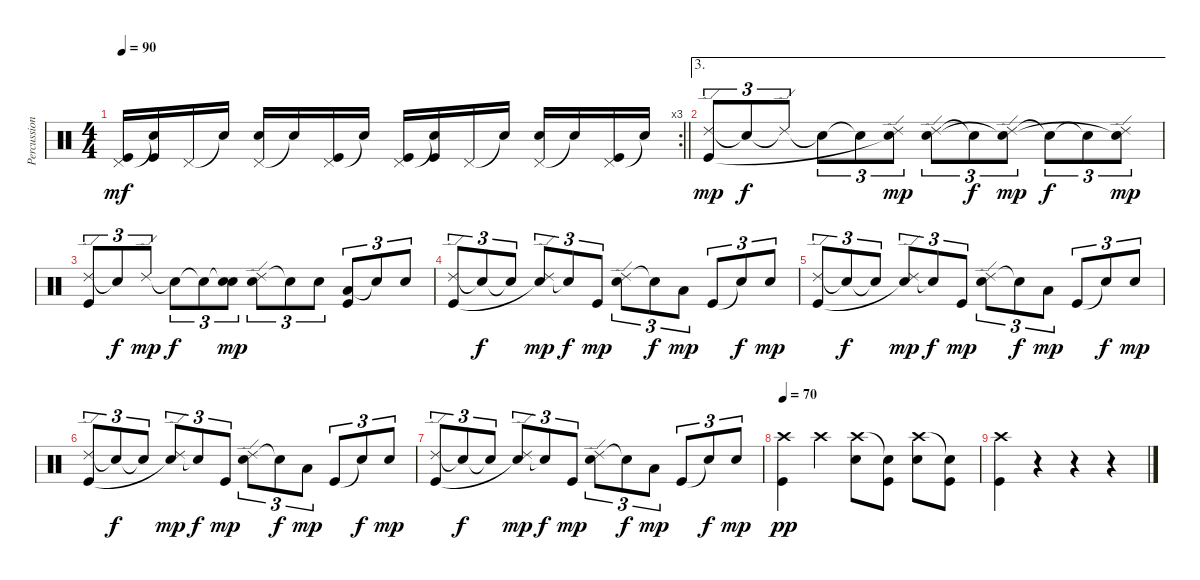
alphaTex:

\track ("Percussion" "Percussion") {instrument percussion}
\staff {score}
\articulation defaults
\rc 3
\ts (4 4)
\tempo 90
\clef neutral
\barLineRight lightlight
\ks c
("Pedal Hi-Hat (hit)" "Kick (hit)").16{dy mf} ("Snare (hit)"{t} "Kick (hit)").16 "Pedal Hi-Hat (hit)".16 "Snare (hit)"{t}.16 ("Pedal Hi-Hat (hit)" "Electric Snare (hit)").16 "Snare (hit)"{t}.16 ("Pedal Hi-Hat (hit)" "Kick (hit)").16 "Snare (hit)"{t}.16 ("Pedal Hi-Hat (hit)" "Kick (hit)").16 ("Snare (hit)"{t} "Kick (hit)").16 "Pedal Hi-Hat (hit)".16 "Snare (hit)"{t}.16 ("Pedal Hi-Hat (hit)" "Electric Snare (hit)").16 "Snare (hit)"{t}.16 ("Pedal Hi-Hat (hit)" "Kick (hit)").16 "Snare (hit)"{t}.16 |
\ae 3
("Ride (edge) 2" "Kick (hit)").8{tu (3 2) dy mp} "Snare (hit)"{t}.8{tu (3 2) dy f} "Ride (edge) 2"{t}.8{tu (3 2)} "Snare (hit)"{t}.8{tu (3 2)} "Snare (hit)"{t}.8{tu (3 2)} ("Ride (edge) 2" "Snare (hit)"{t}).8{tu (3 2) dy mp} ("Ride (edge) 2" "Electric Snare (hit)").8{tu (3 2)} "Snare (hit)"{t}.8{tu (3 2) dy f} ("Ride (edge) 2" "Snare (hit)"{t}).8{tu (3 2) dy mp} "Snare (hit)"{t}.8{tu (3 2) dy f} "Snare (hit)"{t}.8{tu (3 2)} ("Ride (edge) 2" "Snare (hit)"{t}).8{tu (3 2) dy mp} |
("Ride (edge) 2" "Kick (hit)").8{tu (3 2)} "Snare (hit)"{t}.8{tu (3 2) dy f} "Ride (edge) 2".8{tu (3 2) dy mp} "Snare (hit)"{t}.8{tu (3 2) dy f} "Snare (hit)"{t}.8{tu (3 2)} ("Snare (hit)"{t} "Electric Snare (hit)").8{tu (3 2) dy mp} ("Ride (edge) 2" "Electric Snare (hit)").8{tu (3 2)} "Snare (hit)"{t}.8{tu (3 2)} "Electric Snare (hit)".8{tu (3 2)} ("Low Tom (hit)" "Kick (hit)").8{tu (3 2)} "Snare (hit)"{t}.8{tu (3 2)} "Electric Snare (hit)".8{tu (3 2)} |
("Ride (edge) 2" "Kick (hit)").8{tu (3 2)} "Snare (hit)"{t}.8{tu (3 2) dy f} "Snare (hit)"{t}.8{tu (3 2)} ("Ride (edge) 2" "Snare (hit)"{t}).8{tu (3 2) dy mp} "Snare (hit)"{t}.8{tu (3 2) dy f} "Kick (hit)".8{tu (3 2) dy mp} ("Ride (edge) 2" "Electric Snare (hit)").8{tu (3 2)} "Snare (hit)"{t}.8{tu (3 2) dy f} "Low Tom (hit)".8{tu (3 2) dy mp} "Kick (hit)".8{tu (3 2)} "Snare (hit)"{t}.8{tu (3 2) dy f} "Electric Snare (hit)".8{tu (3 2) dy mp} |
("Ride (edge) 2" "Kick (hit)").8{tu (3 2)} "Snare (hit)"{t}.8{tu (3 2) dy f} "Snare (hit)"{t}.8{tu (3 2)} ("Ride (edge) 2" "Snare (hit)"{t}).8{tu (3 2) dy mp} "Snare (hit)"{t}.8{tu (3 2) dy f} "Kick (hit)".8{tu (3 2) dy mp} ("Ride (edge) 2" "Electric Snare (hit)").8{tu (3 2)} "Snare (hit)"{t}.8{tu (3 2) dy f} "Low Tom (hit)".8{tu (3 2) dy mp} "Kick (hit)".8{tu (3 2)} "Snare (hit)"{t}.8{tu (3 2) dy f} "Electric Snare (hit)".8{tu (3 2) dy mp} |
("Ride (edge) 2" "Kick (hit)").8{tu (3 2)} "Snare (hit)"{t}.8{tu (3 2) dy f} "Snare (hit)"{t}.8{tu (3 2)} ("Ride (edge) 2" "Snare (hit)"{t}).8{tu (3 2) dy mp} "Snare (hit)"{t}.8{tu (3 2) dy f} "Kick (hit)".8{tu (3 2) dy mp} ("Ride (edge) 2" "Electric Snare (hit)").8{tu (3 2)} "Snare (hit)"{t}.8{tu (3 2) dy f} "Low Tom (hit)".8{tu (3 2) dy mp} "Kick (hit)".8{tu (3 2)} "Snare (hit)"{t}.8{tu (3 2) dy f} "Electric Snare (hit)".8{tu (3 2) dy mp} |
("Ride (edge) 2" "Kick (hit)").8{tu (3 2)} "Snare (hit)"{t}.8{tu (3 2) dy f} "Snare (hit)"{t}.8{tu (3 2)} ("Ride (edge) 2" "Snare (hit)"{t}).8{tu (3 2) dy mp} "Snare (hit)"{t}.8{tu (3 2) dy f} "Kick (hit)".8{tu (3 2) dy mp} ("Ride (edge) 2" "Electric Snare (hit)").8{tu (3 2)} "Snare (hit)"{t}.8{tu (3 2) dy f} "Low Tom (hit)".8{tu (3 2) dy mp} "Kick (hit)".8{tu (3 2)} "Snare (hit)"{t}.8{tu (3 2) dy f} "Electric Snare (hit)".8{tu (3 2) dy mp} |
\tempo 70
("Crash high (hit)" "Kick (hit)").4{dy pp} "Crash high (hit)".4 ("Crash high (hit)" "Electric Snare (hit)").8 ("Snare (hit)"{t} "Kick (hit)").8 ("Crash high (hit)" "Electric Snare (hit)").8 ("Snare (hit)"{t} "Kick (hit)").8 |
("Crash high (hit)" "Kick (hit)").4 r.4 r.4 r.4
